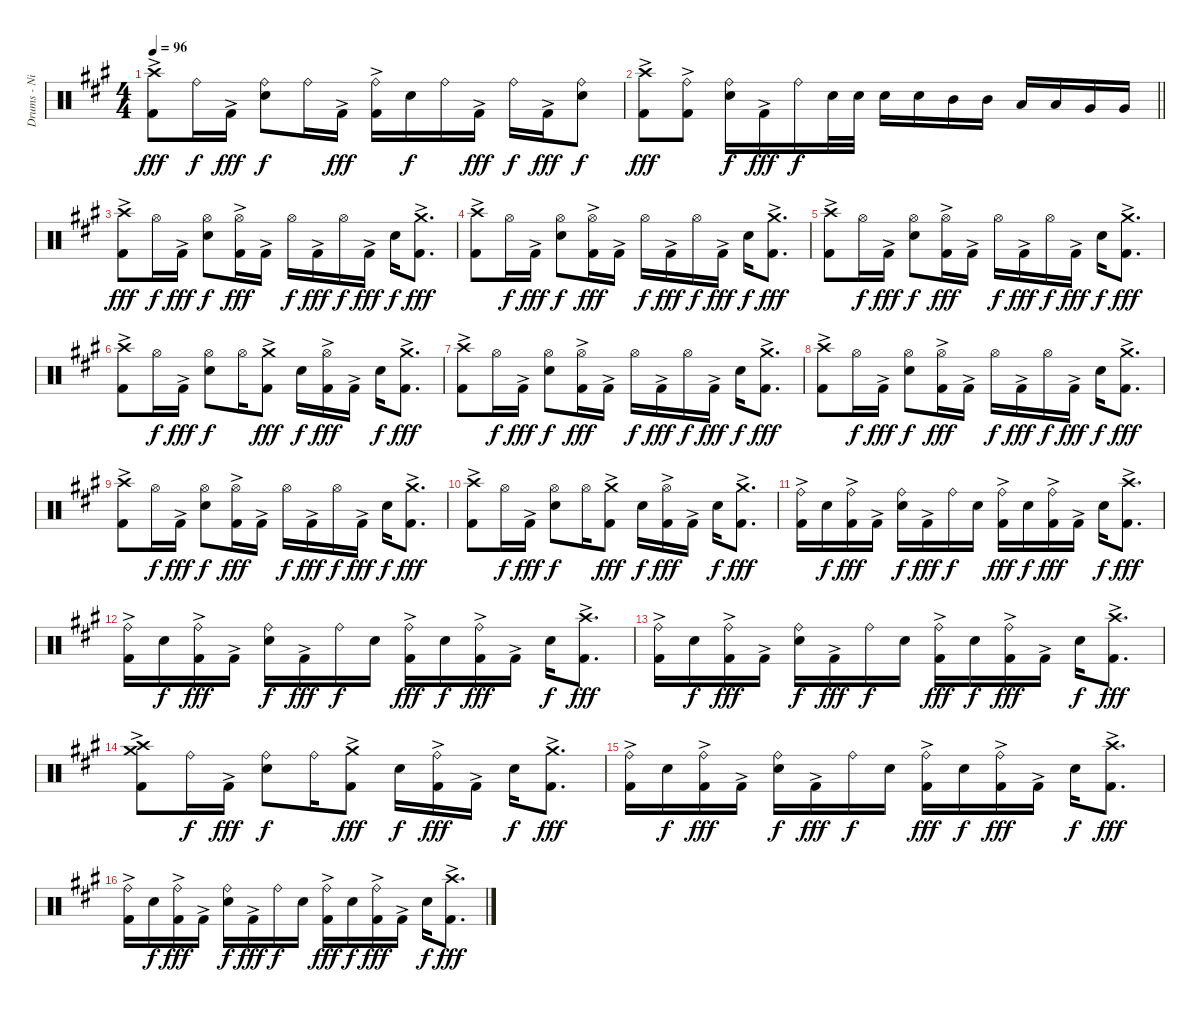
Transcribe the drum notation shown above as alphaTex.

\track ("Drums - Nick Menza" "Drums - Ni") {instrument percussion}
\staff {score}
\articulation defaults
\ts (4 4)
\tempo 96
\clef neutral
\ks f#minor
("Crash high (hit)" "Kick (hit) 2"{ac}).8{dy fff} "Ride (bell)".16{dy f} "Kick (hit) 2"{ac}.16{dy fff} ("Ride (bell)" "Snare (hit) 2").8{dy f} "Ride (bell)".16 "Kick (hit) 2"{ac}.16{dy fff} ("Ride (bell)" "Kick (hit) 2"{ac}).16 "Snare (hit) 2".16{dy f} "Ride (bell)".16 "Kick (hit) 2"{ac}.16{dy fff} "Ride (bell)".16{dy f} "Kick (hit) 2"{ac}.16{dy fff} ("Ride (bell)" "Snare (hit) 2").8{dy f} |
\barLineRight lightlight
("Crash high (hit)" "Kick (hit) 2"{ac}).8{dy fff} ("Ride (bell)" "Kick (hit) 2"{ac}).8 ("Ride (bell)" "Snare (hit) 2").16{dy f} "Kick (hit) 2"{ac}.16{dy fff} "Ride (bell)".16{dy f} "Snare (hit) 2".32 "Snare (hit) 2".32 "Snare (hit) 2".16 "Snare (hit) 2".16 "Mid Tom (hit)".16 "Mid Tom (hit)".16 "Low Tom (hit)".16 "Low Tom (hit)".16 "Very Low Tom (hit)".16 "Very Low Tom (hit)".16 |
("Crash high (hit)" "Kick (hit) 2"{ac}).8{dy fff} "Hi-Hat (open)".16{dy f} "Kick (hit) 2"{ac}.16{dy fff} ("Hi-Hat (open)" "Snare (hit) 2").8{dy f} ("Hi-Hat (open)" "Kick (hit) 2"{ac}).16{dy fff} "Kick (hit) 2"{ac}.16 "Hi-Hat (open)".16{dy f} "Kick (hit) 2"{ac}.16{dy fff} "Hi-Hat (open)".16{dy f} "Kick (hit) 2"{ac}.16{dy fff} "Snare (hit) 2".16{dy f} ("Crash medium (hit)" "Kick (hit) 2"{ac}).8{d dy fff} |
("Crash high (hit)" "Kick (hit) 2"{ac}).8 "Hi-Hat (open)".16{dy f} "Kick (hit) 2"{ac}.16{dy fff} ("Hi-Hat (open)" "Snare (hit) 2").8{dy f} ("Hi-Hat (open)" "Kick (hit) 2"{ac}).16{dy fff} "Kick (hit) 2"{ac}.16 "Hi-Hat (open)".16{dy f} "Kick (hit) 2"{ac}.16{dy fff} "Hi-Hat (open)".16{dy f} "Kick (hit) 2"{ac}.16{dy fff} "Snare (hit) 2".16{dy f} ("Crash medium (hit)" "Kick (hit) 2"{ac}).8{d dy fff} |
("Crash high (hit)" "Kick (hit) 2"{ac}).8 "Hi-Hat (open)".16{dy f} "Kick (hit) 2"{ac}.16{dy fff} ("Hi-Hat (open)" "Snare (hit) 2").8{dy f} ("Hi-Hat (open)" "Kick (hit) 2"{ac}).16{dy fff} "Kick (hit) 2"{ac}.16 "Hi-Hat (open)".16{dy f} "Kick (hit) 2"{ac}.16{dy fff} "Hi-Hat (open)".16{dy f} "Kick (hit) 2"{ac}.16{dy fff} "Snare (hit) 2".16{dy f} ("Crash medium (hit)" "Kick (hit) 2"{ac}).8{d dy fff} |
("Crash high (hit)" "Kick (hit) 2"{ac}).8 "Hi-Hat (open)".16{dy f} "Kick (hit) 2"{ac}.16{dy fff} ("Hi-Hat (open)" "Snare (hit) 2").8{dy f} "Hi-Hat (open)".16 ("Crash medium (hit)" "Kick (hit) 2"{ac}).8{dy fff} "Snare (hit) 2".16{dy f} ("Hi-Hat (open)" "Kick (hit) 2"{ac}).16{dy fff} "Kick (hit) 2"{ac}.16 "Snare (hit) 2".16{dy f} ("Crash medium (hit)" "Kick (hit) 2"{ac}).8{d dy fff} |
("Crash high (hit)" "Kick (hit) 2"{ac}).8 "Hi-Hat (open)".16{dy f} "Kick (hit) 2"{ac}.16{dy fff} ("Hi-Hat (open)" "Snare (hit) 2").8{dy f} ("Hi-Hat (open)" "Kick (hit) 2"{ac}).16{dy fff} "Kick (hit) 2"{ac}.16 "Hi-Hat (open)".16{dy f} "Kick (hit) 2"{ac}.16{dy fff} "Hi-Hat (open)".16{dy f} "Kick (hit) 2"{ac}.16{dy fff} "Snare (hit) 2".16{dy f} ("Crash medium (hit)" "Kick (hit) 2"{ac}).8{d dy fff} |
("Crash high (hit)" "Kick (hit) 2"{ac}).8 "Hi-Hat (open)".16{dy f} "Kick (hit) 2"{ac}.16{dy fff} ("Hi-Hat (open)" "Snare (hit) 2").8{dy f} ("Hi-Hat (open)" "Kick (hit) 2"{ac}).16{dy fff} "Kick (hit) 2"{ac}.16 "Hi-Hat (open)".16{dy f} "Kick (hit) 2"{ac}.16{dy fff} "Hi-Hat (open)".16{dy f} "Kick (hit) 2"{ac}.16{dy fff} "Snare (hit) 2".16{dy f} ("Crash medium (hit)" "Kick (hit) 2"{ac}).8{d dy fff} |
("Crash high (hit)" "Kick (hit) 2"{ac}).8 "Hi-Hat (open)".16{dy f} "Kick (hit) 2"{ac}.16{dy fff} ("Hi-Hat (open)" "Snare (hit) 2").8{dy f} ("Hi-Hat (open)" "Kick (hit) 2"{ac}).16{dy fff} "Kick (hit) 2"{ac}.16 "Hi-Hat (open)".16{dy f} "Kick (hit) 2"{ac}.16{dy fff} "Hi-Hat (open)".16{dy f} "Kick (hit) 2"{ac}.16{dy fff} "Snare (hit) 2".16{dy f} ("Crash medium (hit)" "Kick (hit) 2"{ac}).8{d dy fff} |
("Crash high (hit)" "Kick (hit) 2"{ac}).8 "Hi-Hat (open)".16{dy f} "Kick (hit) 2"{ac}.16{dy fff} ("Hi-Hat (open)" "Snare (hit) 2").8{dy f} "Hi-Hat (open)".16 ("Crash medium (hit)" "Kick (hit) 2"{ac}).8{dy fff} "Snare (hit) 2".16{dy f} ("Hi-Hat (open)" "Kick (hit) 2"{ac}).16{dy fff} "Kick (hit) 2"{ac}.16 "Snare (hit) 2".16{dy f} ("Crash medium (hit)" "Kick (hit) 2"{ac}).8{d dy fff} |
("Ride (bell)" "Kick (hit) 2"{ac}).16 "Snare (hit) 2".16{dy f} ("Ride (bell)" "Kick (hit) 2"{ac}).16{dy fff} "Kick (hit) 2"{ac}.16 ("Ride (bell)" "Snare (hit) 2").16{dy f} "Kick (hit) 2"{ac}.16{dy fff} "Ride (bell)".16{dy f} "Snare (hit) 2".16 ("Ride (bell)" "Kick (hit) 2"{ac}).16{dy fff} "Snare (hit) 2".16{dy f} ("Ride (bell)" "Kick (hit) 2"{ac}).16{dy fff} "Kick (hit) 2"{ac}.16 "Snare (hit) 2".16{dy f} ("Crash high (hit)" "Kick (hit) 2"{ac}).8{d dy fff} |
("Ride (bell)" "Kick (hit) 2"{ac}).16 "Snare (hit) 2".16{dy f} ("Ride (bell)" "Kick (hit) 2"{ac}).16{dy fff} "Kick (hit) 2"{ac}.16 ("Ride (bell)" "Snare (hit) 2").16{dy f} "Kick (hit) 2"{ac}.16{dy fff} "Ride (bell)".16{dy f} "Snare (hit) 2".16 ("Ride (bell)" "Kick (hit) 2"{ac}).16{dy fff} "Snare (hit) 2".16{dy f} ("Ride (bell)" "Kick (hit) 2"{ac}).16{dy fff} "Kick (hit) 2"{ac}.16 "Snare (hit) 2".16{dy f} ("Crash high (hit)" "Kick (hit) 2"{ac}).8{d dy fff} |
("Ride (bell)" "Kick (hit) 2"{ac}).16 "Snare (hit) 2".16{dy f} ("Ride (bell)" "Kick (hit) 2"{ac}).16{dy fff} "Kick (hit) 2"{ac}.16 ("Ride (bell)" "Snare (hit) 2").16{dy f} "Kick (hit) 2"{ac}.16{dy fff} "Ride (bell)".16{dy f} "Snare (hit) 2".16 ("Ride (bell)" "Kick (hit) 2"{ac}).16{dy fff} "Snare (hit) 2".16{dy f} ("Ride (bell)" "Kick (hit) 2"{ac}).16{dy fff} "Kick (hit) 2"{ac}.16 "Snare (hit) 2".16{dy f} ("Crash high (hit)" "Kick (hit) 2"{ac}).8{d dy fff} |
("Crash high (hit)" "Crash medium (hit)" "Kick (hit) 2"{ac}).8 "Ride (bell)".16{dy f} "Kick (hit) 2"{ac}.16{dy fff} ("Ride (bell)" "Snare (hit) 2").8{dy f} "Ride (bell)".16 ("Crash medium (hit)" "Kick (hit) 2"{ac}).8{dy fff} "Snare (hit) 2".16{dy f} ("Ride (bell)" "Kick (hit) 2"{ac}).16{dy fff} "Kick (hit) 2"{ac}.16 "Snare (hit) 2".16{dy f} ("Crash medium (hit)" "Kick (hit) 2"{ac}).8{d dy fff} |
("Ride (bell)" "Kick (hit) 2"{ac}).16 "Snare (hit) 2".16{dy f} ("Ride (bell)" "Kick (hit) 2"{ac}).16{dy fff} "Kick (hit) 2"{ac}.16 ("Ride (bell)" "Snare (hit) 2").16{dy f} "Kick (hit) 2"{ac}.16{dy fff} "Ride (bell)".16{dy f} "Snare (hit) 2".16 ("Ride (bell)" "Kick (hit) 2"{ac}).16{dy fff} "Snare (hit) 2".16{dy f} ("Ride (bell)" "Kick (hit) 2"{ac}).16{dy fff} "Kick (hit) 2"{ac}.16 "Snare (hit) 2".16{dy f} ("Crash high (hit)" "Kick (hit) 2"{ac}).8{d dy fff} |
("Ride (bell)" "Kick (hit) 2"{ac}).16 "Snare (hit) 2".16{dy f} ("Ride (bell)" "Kick (hit) 2"{ac}).16{dy fff} "Kick (hit) 2"{ac}.16 ("Ride (bell)" "Snare (hit) 2").16{dy f} "Kick (hit) 2"{ac}.16{dy fff} "Ride (bell)".16{dy f} "Snare (hit) 2".16 ("Ride (bell)" "Kick (hit) 2"{ac}).16{dy fff} "Snare (hit) 2".16{dy f} ("Ride (bell)" "Kick (hit) 2"{ac}).16{dy fff} "Kick (hit) 2"{ac}.16 "Snare (hit) 2".16{dy f} ("Crash high (hit)" "Kick (hit) 2"{ac}).8{d dy fff}
